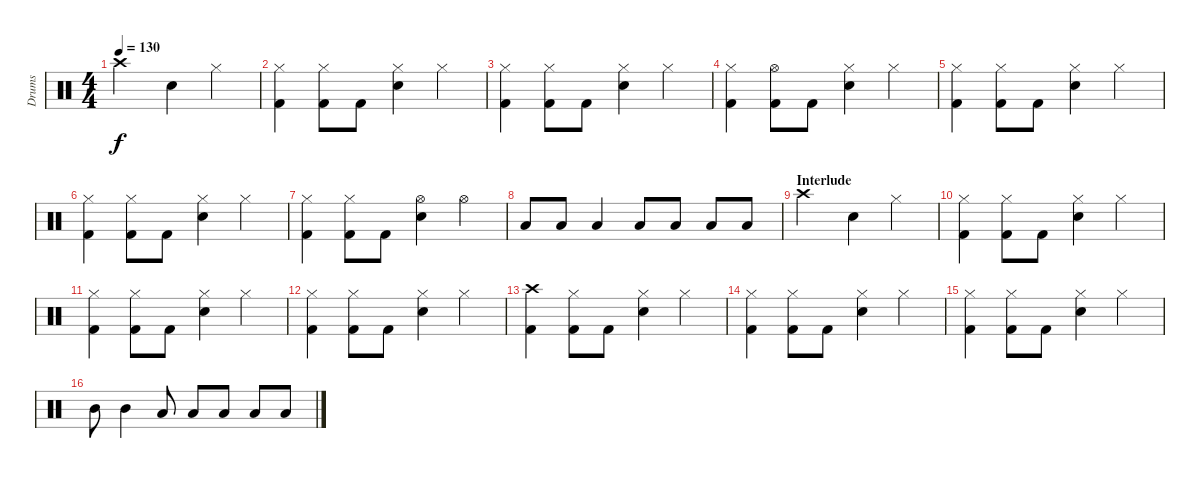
\track ("Drums" "Drums") {instrument percussion}
\staff {score}
\articulation defaults
\ts (4 4)
\tempo 130
\clef neutral
\ks c "Crash high (hit)".2{dy f} "Snare (hit) 2".4 "Hi-Hat (closed)".4
|
("Hi-Hat (closed)" "Kick (hit) 2").4 ("Hi-Hat (closed)" "Kick (hit) 2").8 "Kick (hit) 2".8 ("Hi-Hat (closed)" "Snare (hit) 2").4 "Hi-Hat (closed)".4 |
("Hi-Hat (closed)" "Kick (hit) 2").4 ("Hi-Hat (closed)" "Kick (hit) 2").8 "Kick (hit) 2".8 ("Hi-Hat (closed)" "Snare (hit) 2").4 "Hi-Hat (closed)".4 |
("Hi-Hat (closed)" "Kick (hit) 2").4 ("Hi-Hat (open)" "Kick (hit) 2").8 "Kick (hit) 2".8 ("Hi-Hat (closed)" "Snare (hit) 2").4 "Hi-Hat (closed)".4 |
("Hi-Hat (closed)" "Kick (hit) 2").4 ("Hi-Hat (closed)" "Kick (hit) 2").8 "Kick (hit) 2".8 ("Hi-Hat (closed)" "Snare (hit) 2").4 "Hi-Hat (closed)".4 |
("Hi-Hat (closed)" "Kick (hit) 2").4 ("Hi-Hat (closed)" "Kick (hit) 2").8 "Kick (hit) 2".8 ("Hi-Hat (closed)" "Snare (hit) 2").4 "Hi-Hat (closed)".4 |
("Hi-Hat (closed)" "Kick (hit) 2").4 ("Hi-Hat (closed)" "Kick (hit) 2").8 "Kick (hit) 2".8 ("Hi-Hat (open)" "Snare (hit) 2").4 "Hi-Hat (open)".4 |
"Low Tom (hit)".8 "Low Tom (hit)".8 "Low Tom (hit)".4 "Low Tom (hit)".8 "Low Tom (hit)".8 "Low Tom (hit)".8 "Low Tom (hit)".8 |
\section ("" "Interlude")
"Crash high (hit)".2 "Snare (hit) 2".4 "Hi-Hat (closed)".4 |
("Hi-Hat (closed)" "Kick (hit) 2").4 ("Hi-Hat (closed)" "Kick (hit) 2").8 "Kick (hit) 2".8 ("Hi-Hat (closed)" "Snare (hit) 2").4 "Hi-Hat (closed)".4 |
("Hi-Hat (closed)" "Kick (hit) 2").4 ("Hi-Hat (closed)" "Kick (hit) 2").8 "Kick (hit) 2".8 ("Hi-Hat (closed)" "Snare (hit) 2").4 "Hi-Hat (closed)".4 |
("Hi-Hat (closed)" "Kick (hit) 2").4 ("Hi-Hat (closed)" "Kick (hit) 2").8 "Kick (hit) 2".8 ("Hi-Hat (closed)" "Snare (hit) 2").4 "Hi-Hat (closed)".4 |
("Crash high (hit)" "Kick (hit) 2").4 ("Hi-Hat (closed)" "Kick (hit) 2").8 "Kick (hit) 2".8 ("Hi-Hat (closed)" "Snare (hit) 2").4 "Hi-Hat (closed)".4 |
("Hi-Hat (closed)" "Kick (hit) 2").4 ("Hi-Hat (closed)" "Kick (hit) 2").8 "Kick (hit) 2".8 ("Hi-Hat (closed)" "Snare (hit) 2").4 "Hi-Hat (closed)".4 |
("Hi-Hat (closed)" "Kick (hit) 2").4 ("Hi-Hat (closed)" "Kick (hit) 2").8 "Kick (hit) 2".8 ("Hi-Hat (closed)" "Snare (hit) 2").4 "Hi-Hat (closed)".4 |
"Mid Tom (hit)".8 "Mid Tom (hit)".4 "Low Tom (hit)".8 "Low Tom (hit)".8 "Low Tom (hit)".8 "Low Tom (hit)".8 "Low Tom (hit)".8
